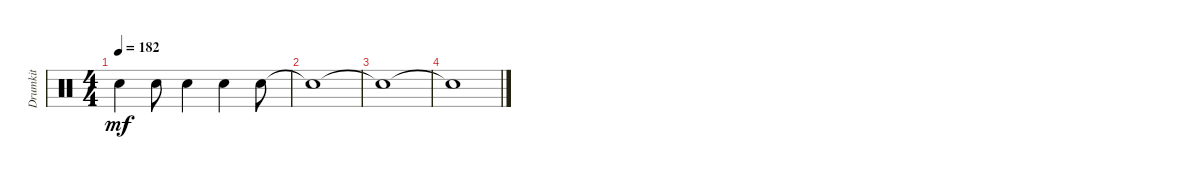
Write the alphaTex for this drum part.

\track ("Drumkit" "Drumkit") {instrument percussion}
\staff {score}
\articulation defaults
\ts (4 4)
\tempo 182
\clef neutral
\ks c "Snare (hit)".4{dy mf} "Snare (hit)".8 "Snare (hit)".4 "Snare (hit)".4 "Snare (hit)".8
|
"Snare (hit)"{t}.1 |
"Snare (hit)"{t}.1 |
"Snare (hit)"{t}.1
